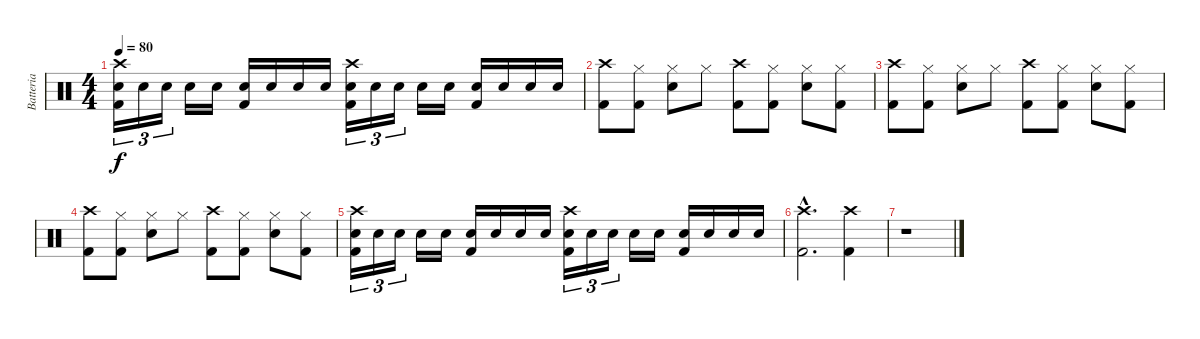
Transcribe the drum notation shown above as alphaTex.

\track ("Batteria" "Batteria") {instrument percussion}
\staff {score}
\articulation defaults
\ts (4 4)
\tempo 80
\clef neutral
\ks c
("Crash high (hit)" "Electric Snare (hit)" "Kick (hit) 2").16{tu (3 2) dy f} "Electric Snare (hit)".16{tu (3 2)} "Electric Snare (hit)".16{tu (3 2)} "Electric Snare (hit)".16 "Electric Snare (hit)".16 ("Electric Snare (hit)" "Kick (hit) 2").16 "Electric Snare (hit)".16 "Electric Snare (hit)".16 "Electric Snare (hit)".16 ("Crash high (hit)" "Electric Snare (hit)" "Kick (hit) 2").16{tu (3 2)} "Electric Snare (hit)".16{tu (3 2)} "Electric Snare (hit)".16{tu (3 2)} "Electric Snare (hit)".16 "Electric Snare (hit)".16 ("Electric Snare (hit)" "Kick (hit) 2").16 "Electric Snare (hit)".16 "Electric Snare (hit)".16 "Electric Snare (hit)".16 |
("Crash high (hit)" "Kick (hit) 2").8 ("Hi-Hat (closed)" "Kick (hit) 2").8 ("Hi-Hat (closed)" "Electric Snare (hit)").8 "Hi-Hat (closed)".8 ("Crash high (hit)" "Kick (hit) 2").8 ("Hi-Hat (closed)" "Kick (hit) 2").8 ("Hi-Hat (closed)" "Electric Snare (hit)").8 ("Hi-Hat (closed)" "Kick (hit) 2").8 |
("Crash high (hit)" "Kick (hit) 2").8 ("Hi-Hat (closed)" "Kick (hit) 2").8 ("Hi-Hat (closed)" "Electric Snare (hit)").8 "Hi-Hat (closed)".8 ("Crash high (hit)" "Kick (hit) 2").8 ("Hi-Hat (closed)" "Kick (hit) 2").8 ("Hi-Hat (closed)" "Electric Snare (hit)").8 ("Hi-Hat (closed)" "Kick (hit) 2").8 |
("Crash high (hit)" "Kick (hit) 2").8 ("Hi-Hat (closed)" "Kick (hit) 2").8 ("Hi-Hat (closed)" "Electric Snare (hit)").8 "Hi-Hat (closed)".8 ("Crash high (hit)" "Kick (hit) 2").8 ("Hi-Hat (closed)" "Kick (hit) 2").8 ("Hi-Hat (closed)" "Electric Snare (hit)").8 ("Hi-Hat (closed)" "Kick (hit) 2").8 |
("Crash high (hit)" "Electric Snare (hit)" "Kick (hit) 2").16{tu (3 2)} "Electric Snare (hit)".16{tu (3 2)} "Electric Snare (hit)".16{tu (3 2)} "Electric Snare (hit)".16 "Electric Snare (hit)".16 ("Electric Snare (hit)" "Kick (hit) 2").16 "Electric Snare (hit)".16 "Electric Snare (hit)".16 "Electric Snare (hit)".16 ("Crash high (hit)" "Electric Snare (hit)" "Kick (hit) 2").16{tu (3 2)} "Electric Snare (hit)".16{tu (3 2)} "Electric Snare (hit)".16{tu (3 2)} "Electric Snare (hit)".16 "Electric Snare (hit)".16 ("Electric Snare (hit)" "Kick (hit) 2").16 "Electric Snare (hit)".16 "Electric Snare (hit)".16 "Electric Snare (hit)".16 |
("Crash high (hit)"{hac} "Kick (hit) 2"{hac}).2{d} ("Crash high (hit)" "Kick (hit) 2").4 |
r.1
